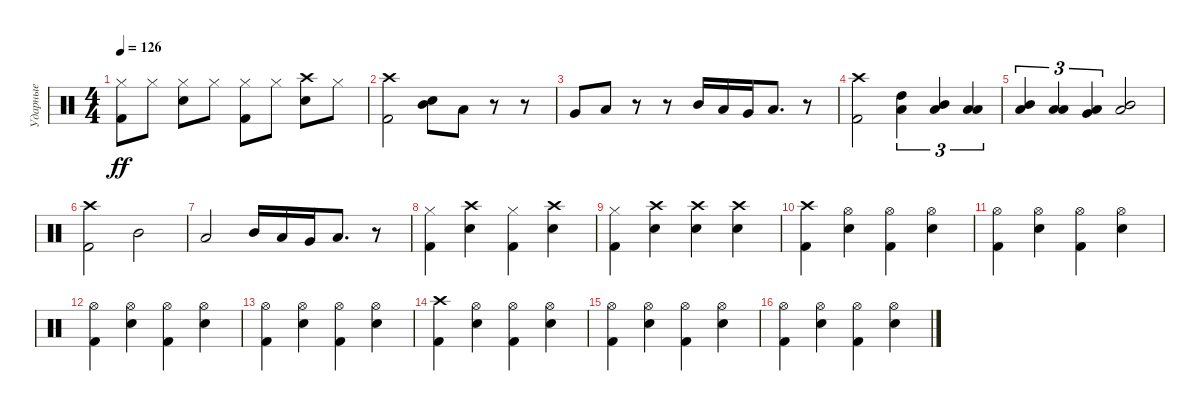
\track ("Ударные" "Ударные") {instrument percussion}
\staff {score}
\articulation defaults
\ts (4 4)
\tempo 126
\clef neutral
\ks c
("Hi-Hat (closed)" "Kick (hit) 2").8{dy ff} "Hi-Hat (closed)".8 ("Hi-Hat (closed)" "Electric Snare (hit)").8 "Hi-Hat (closed)".8 ("Hi-Hat (closed)" "Kick (hit) 2").8 "Hi-Hat (closed)".8 ("Electric Snare (hit)" "Crash high (hit)").8 "Hi-Hat (closed)".8 |
("Crash high (hit)" "Kick (hit) 2").2 ("Mid Tom (hit)" "Electric Snare (hit)").8 "Low Tom (hit)".8 r.8 r.8 |
"Very Low Tom (hit)".8 "Low Floor Tom (hit)".8 r.8 r.8 "Mid Tom (hit)".16 "Low Tom (hit)".16 "Very Low Tom (hit)".16 "Low Floor Tom (hit)".8{d} r.8 |
("Crash high (hit)" "Kick (hit) 2").2 ("High Tom (hit)" "Low Floor Tom (hit)").4{tu (3 2)} ("Mid Tom (hit)" "Low Floor Tom (hit)").4{tu (3 2)} ("Low Tom (hit)" "Low Floor Tom (hit)").4{tu (3 2)} |
("Mid Tom (hit)" "Low Floor Tom (hit)").4{tu (3 2)} ("Low Tom (hit)" "Low Floor Tom (hit)").4{tu (3 2)} ("Very Low Tom (hit)" "Low Floor Tom (hit)").4{tu (3 2)} ("Mid Tom (hit)" "Low Floor Tom (hit)").2 |
("Crash high (hit)" "Kick (hit) 2").2 "Mid Tom (hit)".2 |
"Low Tom (hit)".2 "Mid Tom (hit)".16 "Low Tom (hit)".16 "Very Low Tom (hit)".16 "Low Floor Tom (hit)".8{d} r.8 |
("Kick (hit) 2" "Hi-Hat (closed)").4 ("Crash high (hit)" "Electric Snare (hit)").4 ("Kick (hit) 2" "Hi-Hat (closed)").4 ("Electric Snare (hit)" "Crash high (hit)").4 |
("Kick (hit) 2" "Hi-Hat (closed)").4 ("Crash high (hit)" "Electric Snare (hit)").4 ("Electric Snare (hit)" "Crash high (hit)").4 ("Electric Snare (hit)" "Crash high (hit)").4 |
("Crash high (hit)" "Kick (hit) 2").4 ("Hi-Hat (open)" "Electric Snare (hit)").4 ("Hi-Hat (open)" "Kick (hit) 2").4 ("Hi-Hat (open)" "Electric Snare (hit)").4 |
("Hi-Hat (open)" "Kick (hit) 2").4 ("Hi-Hat (open)" "Electric Snare (hit)").4 ("Hi-Hat (open)" "Kick (hit) 2").4 ("Hi-Hat (open)" "Electric Snare (hit)").4 |
("Hi-Hat (open)" "Kick (hit) 2").4 ("Hi-Hat (open)" "Electric Snare (hit)").4 ("Hi-Hat (open)" "Kick (hit) 2").4 ("Hi-Hat (open)" "Electric Snare (hit)").4 |
("Hi-Hat (open)" "Kick (hit) 2").4 ("Hi-Hat (open)" "Electric Snare (hit)").4 ("Hi-Hat (open)" "Kick (hit) 2").4 ("Hi-Hat (open)" "Electric Snare (hit)").4 |
("Crash high (hit)" "Kick (hit) 2").4 ("Hi-Hat (open)" "Electric Snare (hit)").4 ("Hi-Hat (open)" "Kick (hit) 2").4 ("Hi-Hat (open)" "Electric Snare (hit)").4 |
("Hi-Hat (open)" "Kick (hit) 2").4 ("Hi-Hat (open)" "Electric Snare (hit)").4 ("Hi-Hat (open)" "Kick (hit) 2").4 ("Hi-Hat (open)" "Electric Snare (hit)").4 |
("Hi-Hat (open)" "Kick (hit) 2").4 ("Hi-Hat (open)" "Electric Snare (hit)").4 ("Hi-Hat (open)" "Kick (hit) 2").4 ("Hi-Hat (open)" "Electric Snare (hit)").4
